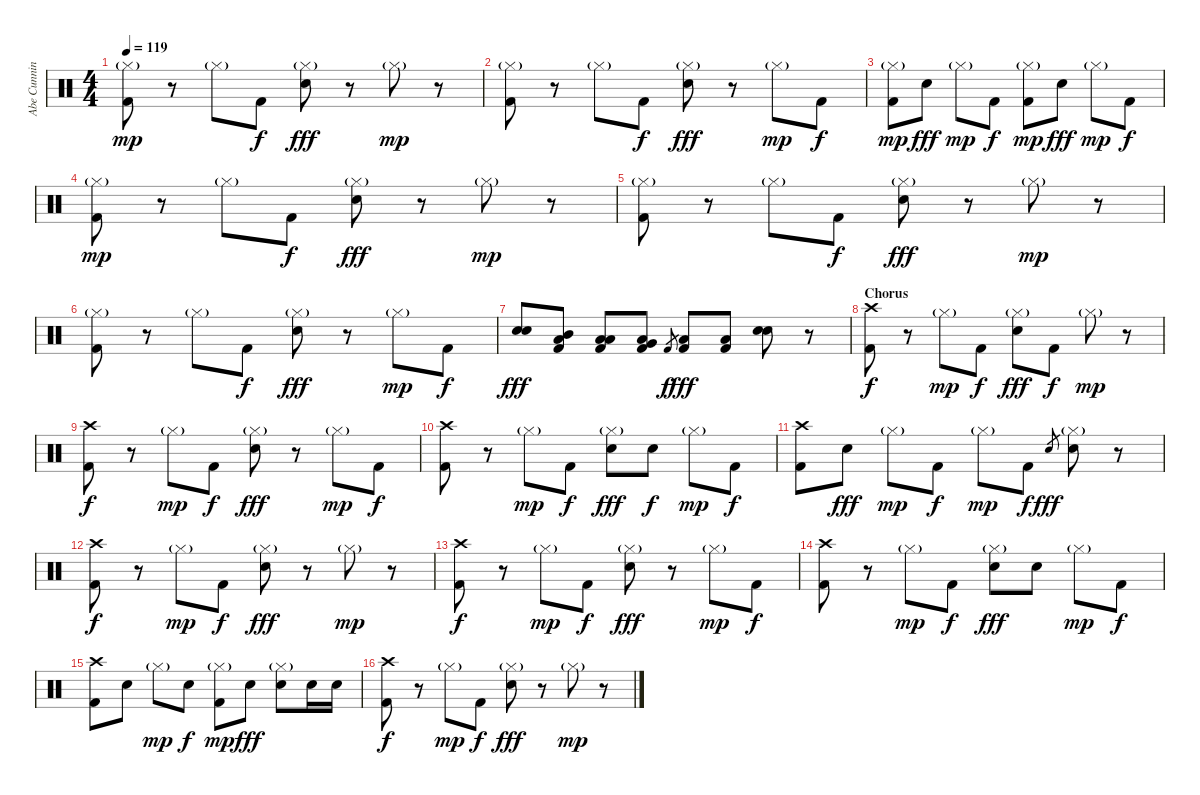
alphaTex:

\track ("Abe Cunningham" "Abe Cunnin") {instrument percussion}
\staff {score}
\articulation defaults
\ts (4 4)
\tempo 119
\clef neutral
\ks c
("Hi-Hat (closed)"{g} "Kick (hit) 2").8{dy mp} r.8 "Hi-Hat (closed)"{g}.8 "Kick (hit) 2".8{dy f} ("Hi-Hat (closed)"{g} "Snare (hit) 2").8{dy fff} r.8 "Hi-Hat (closed)"{g}.8{dy mp} r.8 |
("Hi-Hat (closed)"{g} "Kick (hit) 2").8 r.8 "Hi-Hat (closed)"{g}.8 "Kick (hit) 2".8{dy f} ("Hi-Hat (closed)"{g} "Snare (hit) 2").8{dy fff} r.8 "Hi-Hat (closed)"{g}.8{dy mp} "Kick (hit) 2".8{dy f} |
("Hi-Hat (closed)"{g} "Kick (hit) 2").8{dy mp} "Snare (hit) 2".8{dy fff} "Hi-Hat (closed)"{g}.8{dy mp} "Kick (hit) 2".8{dy f} ("Hi-Hat (closed)"{g} "Kick (hit) 2").8{dy mp} "Snare (hit) 2".8{dy fff} "Hi-Hat (closed)"{g}.8{dy mp} "Kick (hit) 2".8{dy f} |
("Hi-Hat (closed)"{g} "Kick (hit) 2").8{dy mp} r.8 "Hi-Hat (closed)"{g}.8 "Kick (hit) 2".8{dy f} ("Hi-Hat (closed)"{g} "Snare (hit) 2").8{dy fff} r.8 "Hi-Hat (closed)"{g}.8{dy mp} r.8 |
("Hi-Hat (closed)"{g} "Kick (hit) 2").8 r.8 "Hi-Hat (closed)"{g}.8 "Kick (hit) 2".8{dy f} ("Hi-Hat (closed)"{g} "Snare (hit) 2").8{dy fff} r.8 "Hi-Hat (closed)"{g}.8{dy mp} r.8 |
("Hi-Hat (closed)"{g} "Kick (hit) 2").8 r.8 "Hi-Hat (closed)"{g}.8 "Kick (hit) 2".8{dy f} ("Hi-Hat (closed)"{g} "Snare (hit) 2").8{dy fff} r.8 "Hi-Hat (closed)"{g}.8{dy mp} "Kick (hit) 2".8{dy f volume 16} |
("Electric Snare (hit)" "Snare (hit) 2").8{dy fff} ("Mid Tom (hit)" "Low Floor Tom (hit)" "Kick (hit) 2").8{volume 13} ("Low Tom (hit)" "Low Floor Tom (hit)" "Kick (hit) 2").8 ("Very Low Tom (hit)" "Low Floor Tom (hit)" "Kick (hit) 2").8 "Kick (hit) 2".8{gr dy f} ("Low Floor Tom (hit)" "Kick (hit) 2").8{dy fff} ("Low Floor Tom (hit)" "Kick (hit) 2").8 ("Electric Snare (hit)" "Snare (hit) 2").8{volume 16} r.8 |
\section ("" "Chorus")
("Crash high (hit)" "Kick (hit) 2").8{dy f volume 13} r.8 "Hi-Hat (closed)"{g}.8{dy mp} "Kick (hit) 2".8{dy f} ("Hi-Hat (closed)"{g} "Snare (hit) 2").8{dy fff} "Kick (hit) 2".8{dy f} "Hi-Hat (closed)"{g}.8{dy mp} r.8 |
("Crash high (hit)" "Kick (hit) 2").8{dy f} r.8 "Hi-Hat (closed)"{g}.8{dy mp} "Kick (hit) 2".8{dy f} ("Hi-Hat (closed)"{g} "Snare (hit) 2").8{dy fff} r.8 "Hi-Hat (closed)"{g}.8{dy mp} "Kick (hit) 2".8{dy f} |
("Crash high (hit)" "Kick (hit) 2").8 r.8 "Hi-Hat (closed)"{g}.8{dy mp} "Kick (hit) 2".8{dy f} ("Hi-Hat (closed)"{g} "Snare (hit) 2").8{dy fff} "Snare (hit) 2".8{dy f} "Hi-Hat (closed)"{g}.8{dy mp} "Kick (hit) 2".8{dy f} |
("Crash high (hit)" "Kick (hit) 2").8 "Snare (hit) 2".8{dy fff} "Hi-Hat (closed)"{g}.8{dy mp} "Kick (hit) 2".8{dy f} "Hi-Hat (closed)"{g}.8{dy mp} "Kick (hit) 2".8{dy f} "Snare (hit) 2".8{gr dy fff} ("Hi-Hat (closed)"{g} "Snare (hit) 2").8 r.8 |
("Crash high (hit)" "Kick (hit) 2").8{dy f} r.8 "Hi-Hat (closed)"{g}.8{dy mp} "Kick (hit) 2".8{dy f} ("Hi-Hat (closed)"{g} "Snare (hit) 2").8{dy fff} r.8 "Hi-Hat (closed)"{g}.8{dy mp} r.8 |
("Crash high (hit)" "Kick (hit) 2").8{dy f} r.8 "Hi-Hat (closed)"{g}.8{dy mp} "Kick (hit) 2".8{dy f} ("Hi-Hat (closed)"{g} "Snare (hit) 2").8{dy fff} r.8 "Hi-Hat (closed)"{g}.8{dy mp} "Kick (hit) 2".8{dy f} |
("Crash high (hit)" "Kick (hit) 2").8 r.8 "Hi-Hat (closed)"{g}.8{dy mp} "Kick (hit) 2".8{dy f} ("Hi-Hat (closed)"{g} "Snare (hit) 2").8{dy fff} "Snare (hit) 2".8 "Hi-Hat (closed)"{g}.8{dy mp} "Kick (hit) 2".8{dy f} |
("Crash high (hit)" "Kick (hit) 2").8 "Snare (hit) 2".8 "Hi-Hat (closed)"{g}.8{dy mp} "Snare (hit) 2".8{dy f} ("Hi-Hat (closed)"{g} "Kick (hit) 2").8{dy mp} "Snare (hit) 2".8{dy fff} ("Hi-Hat (closed)"{g} "Snare (hit) 2").8 "Snare (hit) 2".16 "Snare (hit) 2".16 |
("Crash high (hit)" "Kick (hit) 2").8{dy f} r.8 "Hi-Hat (closed)"{g}.8{dy mp} "Kick (hit) 2".8{dy f} ("Hi-Hat (closed)"{g} "Snare (hit) 2").8{dy fff} r.8 "Hi-Hat (closed)"{g}.8{dy mp} r.8
